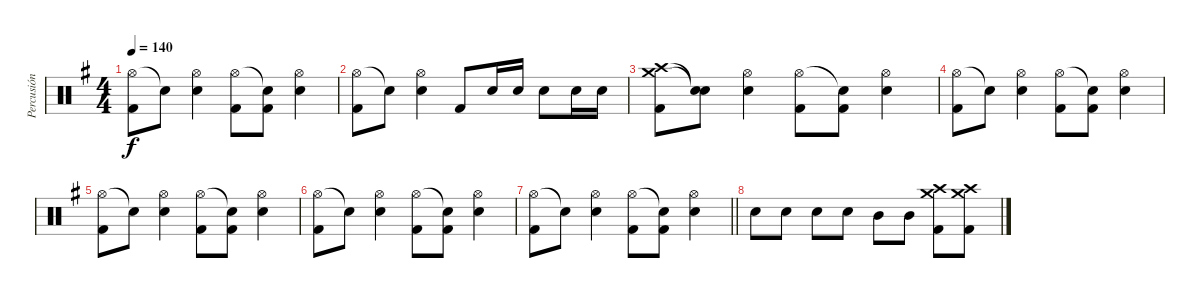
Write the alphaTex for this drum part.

\track ("Percusión" "Percusión") {instrument percussion}
\staff {score}
\articulation defaults
\ts (4 4)
\tempo 140
\clef neutral
\ks g
("Hi-Hat (open)" "Kick (hit) 2").8{dy f} "Snare (hit)"{t}.8 ("Hi-Hat (open)" "Electric Snare (hit)").4 ("Hi-Hat (open)" "Kick (hit) 2").8 ("Snare (hit)"{t} "Kick (hit) 2").8 ("Hi-Hat (open)" "Electric Snare (hit)").4 |
("Hi-Hat (open)" "Kick (hit) 2").8 "Snare (hit)"{t}.8 ("Hi-Hat (open)" "Electric Snare (hit)").4 "Kick (hit) 2".8 "Electric Snare (hit)".16 "Electric Snare (hit)".16 "Electric Snare (hit)".8 "Electric Snare (hit)".16 "Electric Snare (hit)".16 |
("Crash medium (hit)" "Crash high (hit)" "Kick (hit) 2").8 ("Snare (hit)"{t} "Snare (hit)"{t}).8 ("Hi-Hat (open)" "Electric Snare (hit)").4 ("Hi-Hat (open)" "Kick (hit) 2").8 ("Snare (hit)"{t} "Kick (hit) 2").8 ("Hi-Hat (open)" "Electric Snare (hit)").4 |
("Hi-Hat (open)" "Kick (hit) 2").8 "Snare (hit)"{t}.8 ("Hi-Hat (open)" "Electric Snare (hit)").4 ("Hi-Hat (open)" "Kick (hit) 2").8 ("Snare (hit)"{t} "Kick (hit) 2").8 ("Hi-Hat (open)" "Electric Snare (hit)").4 |
("Hi-Hat (open)" "Kick (hit) 2").8 "Snare (hit)"{t}.8 ("Hi-Hat (open)" "Electric Snare (hit)").4 ("Hi-Hat (open)" "Kick (hit) 2").8 ("Snare (hit)"{t} "Kick (hit) 2").8 ("Hi-Hat (open)" "Electric Snare (hit)").4 |
("Hi-Hat (open)" "Kick (hit) 2").8 "Snare (hit)"{t}.8 ("Hi-Hat (open)" "Electric Snare (hit)").4 ("Hi-Hat (open)" "Kick (hit) 2").8 ("Snare (hit)"{t} "Kick (hit) 2").8 ("Hi-Hat (open)" "Electric Snare (hit)").4 |
\barLineRight lightlight
("Hi-Hat (open)" "Kick (hit) 2").8 "Snare (hit)"{t}.8 ("Hi-Hat (open)" "Electric Snare (hit)").4 ("Hi-Hat (open)" "Kick (hit) 2").8 ("Snare (hit)"{t} "Kick (hit) 2").8 ("Hi-Hat (open)" "Electric Snare (hit)").4 |
"Electric Snare (hit)".8 "Electric Snare (hit)".8 "Electric Snare (hit)".8 "Electric Snare (hit)".8 "Mid Tom (hit)".8 "Mid Tom (hit)".8 ("Crash high (hit)" "Crash medium (hit)" "Kick (hit) 2").8 ("Crash high (hit)" "Crash medium (hit)" "Kick (hit) 2").8
